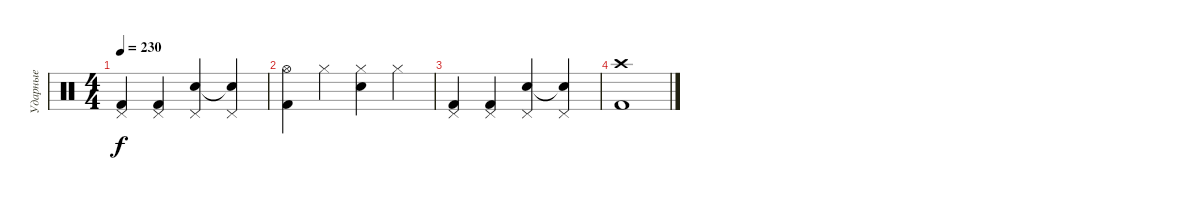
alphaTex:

\track ("Ударные" "Ударные") {instrument percussion}
\staff {score}
\articulation defaults
\ts (4 4)
\tempo 230
\clef neutral
\ks c
("Pedal Hi-Hat (hit)" "Kick (hit) 2").4{dy f} ("Pedal Hi-Hat (hit)" "Kick (hit) 2").4 ("Pedal Hi-Hat (hit)" "Electric Snare (hit)").4 ("Pedal Hi-Hat (hit)" "Electric Snare (hit)"{t}).4 |
("Hi-Hat (open)" "Kick (hit) 2").4 "Hi-Hat (closed)".4 ("Hi-Hat (closed)" "Electric Snare (hit)").4 "Hi-Hat (closed)".4 |
("Pedal Hi-Hat (hit)" "Kick (hit) 2").4 ("Pedal Hi-Hat (hit)" "Kick (hit) 2").4 ("Pedal Hi-Hat (hit)" "Electric Snare (hit)").4 ("Pedal Hi-Hat (hit)" "Electric Snare (hit)"{t}).4 |
("Crash high (hit)" "Kick (hit) 2").1
